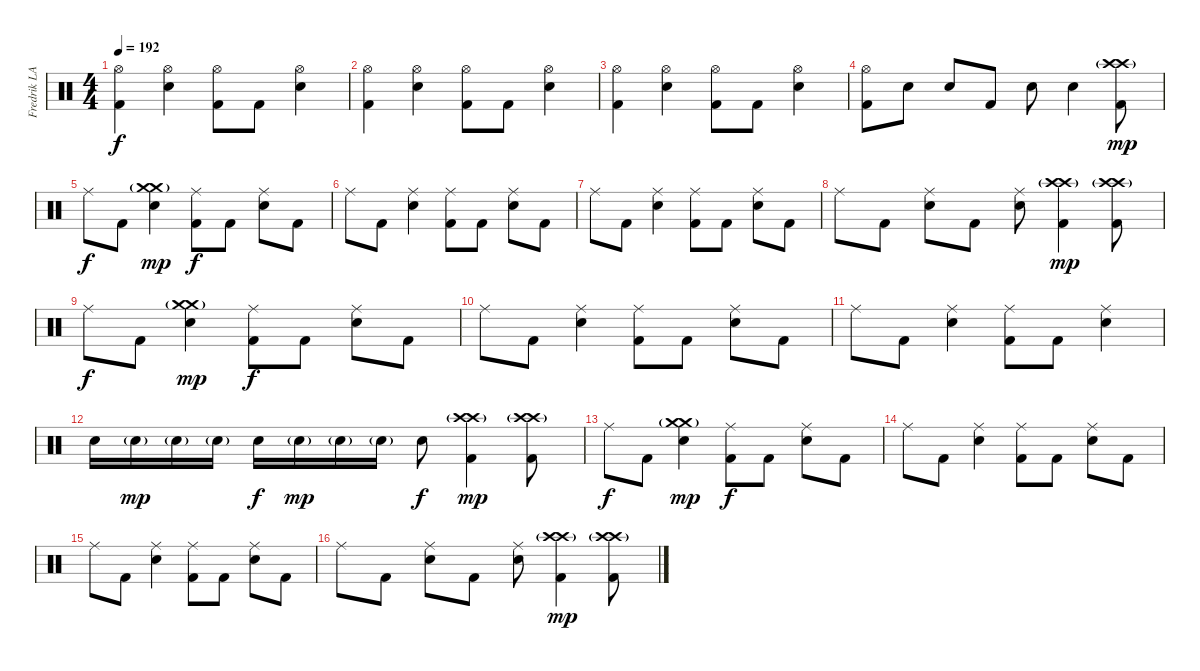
\track ("Fredrik LARZON" "Fredrik LA") {instrument percussion}
\staff {score}
\articulation defaults
\ts (4 4)
\tempo 192
\clef neutral
\ks c
("Hi-Hat (open)" "Kick (hit) 2").4{dy f} ("Hi-Hat (open)" "Electric Snare (hit)").4 ("Hi-Hat (open)" "Kick (hit) 2").8 "Kick (hit) 2".8 ("Hi-Hat (open)" "Electric Snare (hit)").4 |
("Hi-Hat (open)" "Kick (hit) 2").4 ("Hi-Hat (open)" "Electric Snare (hit)").4 ("Hi-Hat (open)" "Kick (hit) 2").8 "Kick (hit) 2".8 ("Hi-Hat (open)" "Electric Snare (hit)").4 |
("Hi-Hat (open)" "Kick (hit) 2").4 ("Hi-Hat (open)" "Electric Snare (hit)").4 ("Hi-Hat (open)" "Kick (hit) 2").8 "Kick (hit) 2".8 ("Hi-Hat (open)" "Electric Snare (hit)").4 |
("Hi-Hat (open)" "Kick (hit) 2").8 "Electric Snare (hit)".8 "Electric Snare (hit)".8 "Kick (hit) 2".8 "Electric Snare (hit)".8 "Electric Snare (hit)".4 ("Crash high (hit)" "Crash high (hit)"{g} "Kick (hit) 2").8{dy mp} |
"Ride (middle)".8{dy f} "Kick (hit) 2".8 ("Crash medium (hit)" "Electric Snare (hit)" "Crash medium (hit)"{g}).4{dy mp} ("Ride (middle)" "Kick (hit) 2").8{dy f} "Kick (hit) 2".8 ("Ride (middle)" "Electric Snare (hit)").8 "Kick (hit) 2".8 |
"Ride (middle)".8 "Kick (hit) 2".8 ("Ride (middle)" "Electric Snare (hit)").4 ("Ride (middle)" "Kick (hit) 2").8 "Kick (hit) 2".8 ("Ride (middle)" "Electric Snare (hit)").8 "Kick (hit) 2".8 |
"Ride (middle)".8 "Kick (hit) 2".8 ("Ride (middle)" "Electric Snare (hit)").4 ("Ride (middle)" "Kick (hit) 2").8 "Kick (hit) 2".8 ("Ride (middle)" "Electric Snare (hit)").8 "Kick (hit) 2".8 |
"Ride (middle)".8 "Kick (hit) 2".8 ("Ride (middle)" "Electric Snare (hit)").8 "Kick (hit) 2".8 ("Ride (middle)" "Electric Snare (hit)").8 ("Crash high (hit)" "Crash high (hit)"{g} "Kick (hit) 2").4{dy mp} ("Crash high (hit)" "Crash high (hit)"{g} "Kick (hit) 2").8 |
"Ride (middle)".8{dy f} "Kick (hit) 2".8 ("Crash medium (hit)" "Electric Snare (hit)" "Crash medium (hit)"{g}).4{dy mp} ("Ride (middle)" "Kick (hit) 2").8{dy f} "Kick (hit) 2".8 ("Ride (middle)" "Electric Snare (hit)").8 "Kick (hit) 2".8 |
"Ride (middle)".8 "Kick (hit) 2".8 ("Ride (middle)" "Electric Snare (hit)").4 ("Ride (middle)" "Kick (hit) 2").8 "Kick (hit) 2".8 ("Ride (middle)" "Electric Snare (hit)").8 "Kick (hit) 2".8 |
"Ride (middle)".8 "Kick (hit) 2".8 ("Ride (middle)" "Electric Snare (hit)").4 ("Ride (middle)" "Kick (hit) 2").8 "Kick (hit) 2".8 ("Ride (middle)" "Electric Snare (hit)").4 |
"Electric Snare (hit)".16 "Electric Snare (hit)"{g}.16{dy mp} "Electric Snare (hit)"{g}.16 "Electric Snare (hit)"{g}.16 "Electric Snare (hit)".16{dy f} "Electric Snare (hit)"{g}.16{dy mp} "Electric Snare (hit)"{g}.16 "Electric Snare (hit)"{g}.16 "Electric Snare (hit)".8{dy f} ("Crash high (hit)" "Crash high (hit)"{g} "Kick (hit) 2").4{dy mp} ("Crash high (hit)" "Crash high (hit)"{g} "Kick (hit) 2").8 |
"Ride (middle)".8{dy f} "Kick (hit) 2".8 ("Crash medium (hit)" "Electric Snare (hit)" "Crash medium (hit)"{g}).4{dy mp} ("Ride (middle)" "Kick (hit) 2").8{dy f} "Kick (hit) 2".8 ("Ride (middle)" "Electric Snare (hit)").8 "Kick (hit) 2".8 |
"Ride (middle)".8 "Kick (hit) 2".8 ("Ride (middle)" "Electric Snare (hit)").4 ("Ride (middle)" "Kick (hit) 2").8 "Kick (hit) 2".8 ("Ride (middle)" "Electric Snare (hit)").8 "Kick (hit) 2".8 |
"Ride (middle)".8 "Kick (hit) 2".8 ("Ride (middle)" "Electric Snare (hit)").4 ("Ride (middle)" "Kick (hit) 2").8 "Kick (hit) 2".8 ("Ride (middle)" "Electric Snare (hit)").8 "Kick (hit) 2".8 |
"Ride (middle)".8 "Kick (hit) 2".8 ("Ride (middle)" "Electric Snare (hit)").8 "Kick (hit) 2".8 ("Ride (middle)" "Electric Snare (hit)").8 ("Crash high (hit)" "Crash high (hit)"{g} "Kick (hit) 2").4{dy mp} ("Crash high (hit)" "Crash high (hit)"{g} "Kick (hit) 2").8
